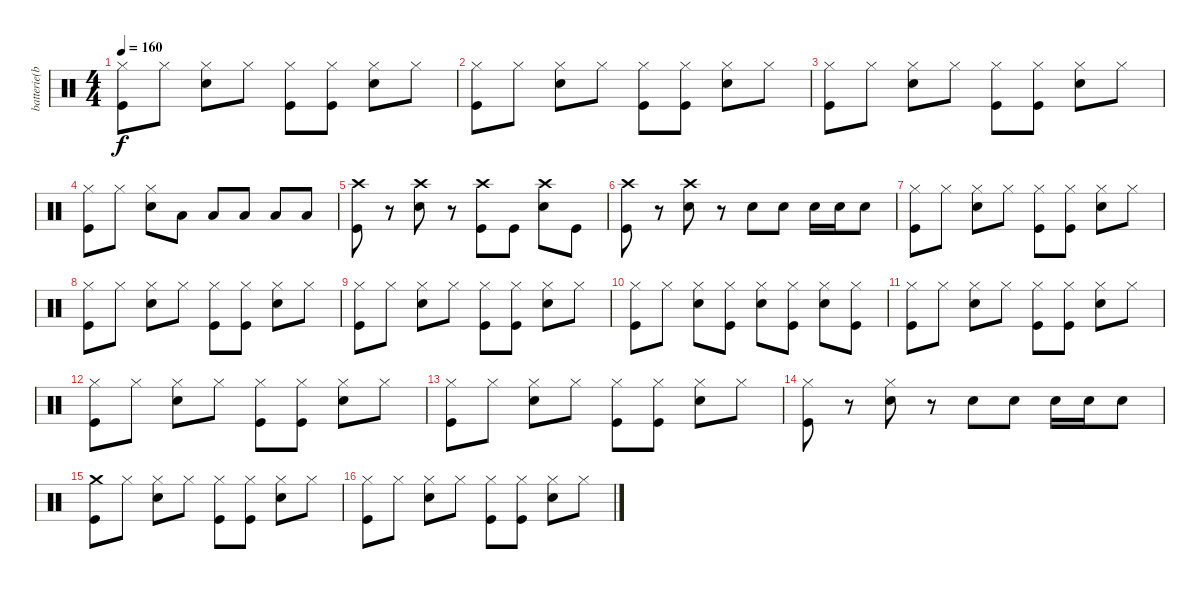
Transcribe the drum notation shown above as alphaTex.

\track ("batterie(brett)" "batterie(b") {instrument percussion}
\staff {score}
\articulation defaults
\ts (4 4)
\tempo 160
\clef neutral
\ks c
("Hi-Hat (closed)" "Kick (hit)").8{dy f} "Hi-Hat (closed)".8 ("Hi-Hat (closed)" "Snare (hit) 2").8 "Hi-Hat (closed)".8 ("Hi-Hat (closed)" "Kick (hit)").8 ("Hi-Hat (closed)" "Kick (hit)").8 ("Hi-Hat (closed)" "Snare (hit) 2").8 "Hi-Hat (closed)".8 |
("Hi-Hat (closed)" "Kick (hit)").8 "Hi-Hat (closed)".8 ("Hi-Hat (closed)" "Snare (hit) 2").8 "Hi-Hat (closed)".8 ("Hi-Hat (closed)" "Kick (hit)").8 ("Hi-Hat (closed)" "Kick (hit)").8 ("Hi-Hat (closed)" "Snare (hit) 2").8 "Hi-Hat (closed)".8 |
("Hi-Hat (closed)" "Kick (hit)").8 "Hi-Hat (closed)".8 ("Hi-Hat (closed)" "Snare (hit) 2").8 "Hi-Hat (closed)".8 ("Hi-Hat (closed)" "Kick (hit)").8 ("Hi-Hat (closed)" "Kick (hit)").8 ("Hi-Hat (closed)" "Snare (hit) 2").8 "Hi-Hat (closed)".8 |
("Hi-Hat (closed)" "Kick (hit)").8 "Hi-Hat (closed)".8 ("Hi-Hat (closed)" "Snare (hit) 2").8 "Low Tom (hit)".8 "Low Tom (hit)".8 "Low Tom (hit)".8 "Low Tom (hit)".8 "Low Tom (hit)".8 |
("Crash high (hit)" "Kick (hit)").8 r.8 ("Crash high (hit)" "Snare (hit) 2").8 r.8 ("Crash high (hit)" "Kick (hit)").8 "Kick (hit)".8 ("Crash high (hit)" "Snare (hit) 2").8 "Kick (hit)".8 |
("Crash high (hit)" "Kick (hit)").8 r.8 ("Crash high (hit)" "Snare (hit) 2").8 r.8 "Snare (hit) 2".8 "Snare (hit) 2".8 "Snare (hit) 2".16 "Snare (hit) 2".16 "Snare (hit) 2".8 |
("Hi-Hat (closed)" "Kick (hit)").8 "Hi-Hat (closed)".8 ("Hi-Hat (closed)" "Snare (hit) 2").8 "Hi-Hat (closed)".8 ("Hi-Hat (closed)" "Kick (hit)").8 ("Hi-Hat (closed)" "Kick (hit)").8 ("Hi-Hat (closed)" "Snare (hit) 2").8 "Hi-Hat (closed)".8 |
("Hi-Hat (closed)" "Kick (hit)").8 "Hi-Hat (closed)".8 ("Hi-Hat (closed)" "Snare (hit) 2").8 "Hi-Hat (closed)".8 ("Hi-Hat (closed)" "Kick (hit)").8 ("Hi-Hat (closed)" "Kick (hit)").8 ("Hi-Hat (closed)" "Snare (hit) 2").8 "Hi-Hat (closed)".8 |
("Hi-Hat (closed)" "Kick (hit)").8 "Hi-Hat (closed)".8 ("Hi-Hat (closed)" "Snare (hit) 2").8 "Hi-Hat (closed)".8 ("Hi-Hat (closed)" "Kick (hit)").8 ("Hi-Hat (closed)" "Kick (hit)").8 ("Hi-Hat (closed)" "Snare (hit) 2").8 "Hi-Hat (closed)".8 |
("Hi-Hat (closed)" "Kick (hit)").8 "Hi-Hat (closed)".8 ("Hi-Hat (closed)" "Snare (hit) 2").8 ("Hi-Hat (closed)" "Kick (hit)").8 ("Hi-Hat (closed)" "Snare (hit) 2").8 ("Hi-Hat (closed)" "Kick (hit)").8 ("Hi-Hat (closed)" "Snare (hit) 2").8 ("Hi-Hat (closed)" "Kick (hit)").8 |
("Hi-Hat (closed)" "Kick (hit)").8 "Hi-Hat (closed)".8 ("Hi-Hat (closed)" "Snare (hit) 2").8 "Hi-Hat (closed)".8 ("Hi-Hat (closed)" "Kick (hit)").8 ("Hi-Hat (closed)" "Kick (hit)").8 ("Hi-Hat (closed)" "Snare (hit) 2").8 "Hi-Hat (closed)".8 |
("Hi-Hat (closed)" "Kick (hit)").8 "Hi-Hat (closed)".8 ("Hi-Hat (closed)" "Snare (hit) 2").8 "Hi-Hat (closed)".8 ("Hi-Hat (closed)" "Kick (hit)").8 ("Hi-Hat (closed)" "Kick (hit)").8 ("Hi-Hat (closed)" "Snare (hit) 2").8 "Hi-Hat (closed)".8 |
("Hi-Hat (closed)" "Kick (hit)").8 "Hi-Hat (closed)".8 ("Hi-Hat (closed)" "Snare (hit) 2").8 "Hi-Hat (closed)".8 ("Hi-Hat (closed)" "Kick (hit)").8 ("Hi-Hat (closed)" "Kick (hit)").8 ("Hi-Hat (closed)" "Snare (hit) 2").8 "Hi-Hat (closed)".8 |
("Hi-Hat (closed)" "Kick (hit)").8 r.8 ("Hi-Hat (closed)" "Snare (hit) 2").8 r.8 "Snare (hit) 2".8 "Snare (hit) 2".8 "Snare (hit) 2".16 "Snare (hit) 2".16 "Snare (hit) 2".8 |
("Crash medium (hit)" "Kick (hit)").8 "Hi-Hat (closed)".8 ("Hi-Hat (closed)" "Snare (hit) 2").8 "Hi-Hat (closed)".8 ("Hi-Hat (closed)" "Kick (hit)").8 ("Hi-Hat (closed)" "Kick (hit)").8 ("Hi-Hat (closed)" "Snare (hit) 2").8 "Hi-Hat (closed)".8 |
("Hi-Hat (closed)" "Kick (hit)").8 "Hi-Hat (closed)".8 ("Hi-Hat (closed)" "Snare (hit) 2").8 "Hi-Hat (closed)".8 ("Hi-Hat (closed)" "Kick (hit)").8 ("Hi-Hat (closed)" "Kick (hit)").8 ("Hi-Hat (closed)" "Snare (hit) 2").8 "Hi-Hat (closed)".8
